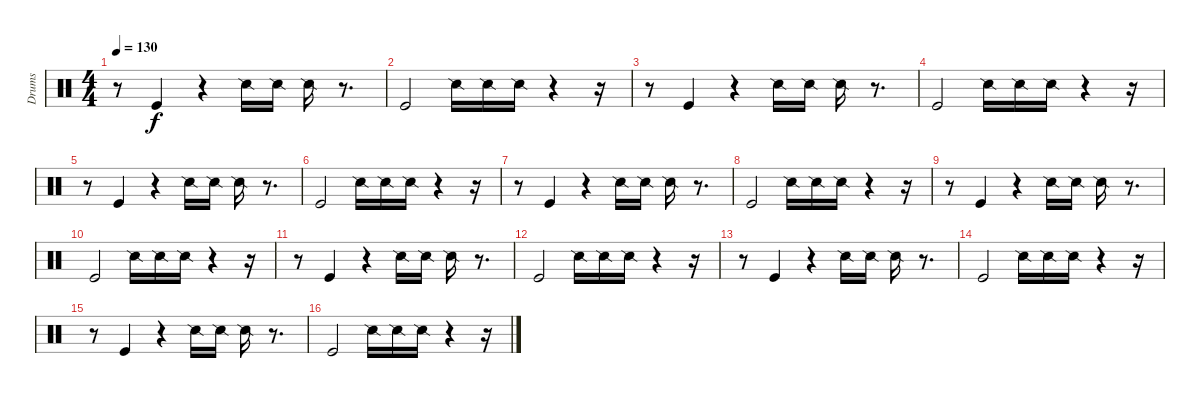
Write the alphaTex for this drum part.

\track ("Drums" "Drums") {instrument percussion}
\staff {score}
\articulation defaults
\ts (4 4)
\tempo 130
\clef neutral
\ks c
r.8{dy f} "Kick (hit)".4 r.4 "Snare (side stick) 2".16 "Snare (side stick) 2".16 "Snare (side stick) 2".16 r.8{d} |
"Kick (hit)".2 "Snare (side stick) 2".16 "Snare (side stick) 2".16 "Snare (side stick) 2".16 r.4 r.16 |
r.8 "Kick (hit)".4 r.4 "Snare (side stick) 2".16 "Snare (side stick) 2".16 "Snare (side stick) 2".16 r.8{d} |
"Kick (hit)".2 "Snare (side stick) 2".16 "Snare (side stick) 2".16 "Snare (side stick) 2".16 r.4 r.16 |
r.8 "Kick (hit)".4 r.4 "Snare (side stick) 2".16 "Snare (side stick) 2".16 "Snare (side stick) 2".16 r.8{d} |
"Kick (hit)".2 "Snare (side stick) 2".16 "Snare (side stick) 2".16 "Snare (side stick) 2".16 r.4 r.16 |
r.8 "Kick (hit)".4 r.4 "Snare (side stick) 2".16 "Snare (side stick) 2".16 "Snare (side stick) 2".16 r.8{d} |
"Kick (hit)".2 "Snare (side stick) 2".16 "Snare (side stick) 2".16 "Snare (side stick) 2".16 r.4 r.16 |
r.8 "Kick (hit)".4 r.4 "Snare (side stick) 2".16 "Snare (side stick) 2".16 "Snare (side stick) 2".16 r.8{d} |
"Kick (hit)".2 "Snare (side stick) 2".16 "Snare (side stick) 2".16 "Snare (side stick) 2".16 r.4 r.16 |
r.8 "Kick (hit)".4 r.4 "Snare (side stick) 2".16 "Snare (side stick) 2".16 "Snare (side stick) 2".16 r.8{d} |
"Kick (hit)".2 "Snare (side stick) 2".16 "Snare (side stick) 2".16 "Snare (side stick) 2".16 r.4 r.16 |
r.8 "Kick (hit)".4 r.4 "Snare (side stick) 2".16 "Snare (side stick) 2".16 "Snare (side stick) 2".16 r.8{d} |
"Kick (hit)".2 "Snare (side stick) 2".16 "Snare (side stick) 2".16 "Snare (side stick) 2".16 r.4 r.16 |
r.8 "Kick (hit)".4 r.4 "Snare (side stick) 2".16 "Snare (side stick) 2".16 "Snare (side stick) 2".16 r.8{d} |
"Kick (hit)".2 "Snare (side stick) 2".16 "Snare (side stick) 2".16 "Snare (side stick) 2".16 r.4 r.16
